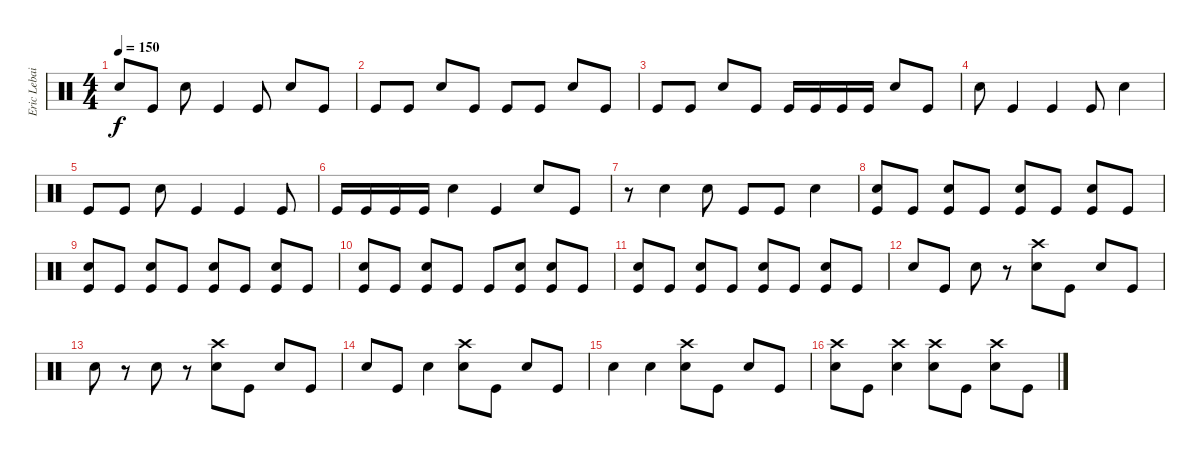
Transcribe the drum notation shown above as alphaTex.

\track ("Eric Lebailly - Drums" "Eric Lebai") {instrument percussion}
\staff {score}
\articulation defaults
\ts (4 4)
\tempo 150
\clef neutral
\ks c "Snare (hit)"{t}.8{dy f} "Kick (hit)".8 "Snare (hit) 2".8 "Kick (hit)".4 "Kick (hit)".8 "Snare (hit) 2".8 "Kick (hit)".8
|
"Kick (hit)".8 "Kick (hit)".8 "Snare (hit) 2".8 "Kick (hit)".8 "Kick (hit)".8 "Kick (hit)".8 "Snare (hit) 2".8 "Kick (hit)".8 |
"Kick (hit)".8 "Kick (hit)".8 "Snare (hit) 2".8 "Kick (hit)".8 "Kick (hit)".16 "Kick (hit)".16 "Kick (hit)".16 "Kick (hit)".16 "Snare (hit) 2".8 "Kick (hit)".8 |
"Snare (hit) 2".8 "Kick (hit)".4 "Kick (hit)".4 "Kick (hit)".8 "Snare (hit) 2".4 |
"Kick (hit)".8 "Kick (hit)".8 "Snare (hit) 2".8 "Kick (hit)".4 "Kick (hit)".4 "Kick (hit)".8 |
"Kick (hit)".16 "Kick (hit)".16 "Kick (hit)".16 "Kick (hit)".16 "Snare (hit) 2".4 "Kick (hit)".4 "Snare (hit) 2".8 "Kick (hit)".8 |
r.8 "Snare (hit) 2".4 "Snare (hit) 2".8 "Kick (hit)".8 "Kick (hit)".8 "Snare (hit) 2".4 |
("Snare (hit) 2" "Kick (hit)").8 "Kick (hit)".8 ("Snare (hit) 2" "Kick (hit)").8 "Kick (hit)".8 ("Snare (hit) 2" "Kick (hit)").8 "Kick (hit)".8 ("Snare (hit) 2" "Kick (hit)").8 "Kick (hit)".8 |
("Snare (hit) 2" "Kick (hit)").8 "Kick (hit)".8 ("Snare (hit) 2" "Kick (hit)").8 "Kick (hit)".8 ("Snare (hit) 2" "Kick (hit)").8 "Kick (hit)".8 ("Snare (hit) 2" "Kick (hit)").8 "Kick (hit)".8 |
("Snare (hit) 2" "Kick (hit)").8 "Kick (hit)".8 ("Snare (hit) 2" "Kick (hit)").8 "Kick (hit)".8 "Kick (hit)".8 ("Snare (hit) 2" "Kick (hit)").8 ("Snare (hit) 2" "Kick (hit)").8 "Kick (hit)".8 |
("Snare (hit) 2" "Kick (hit)").8 "Kick (hit)".8 ("Snare (hit) 2" "Kick (hit)").8 "Kick (hit)".8 ("Snare (hit) 2" "Kick (hit)").8 "Kick (hit)".8 ("Snare (hit) 2" "Kick (hit)").8 "Kick (hit)".8 |
"Snare (hit) 2".8 "Kick (hit)".8 "Snare (hit) 2".8 r.8 ("Crash high (hit)" "Snare (hit) 2").8 "Kick (hit)".8 "Snare (hit) 2".8 "Kick (hit)".8 |
"Snare (hit) 2".8 r.8 "Snare (hit) 2".8 r.8 ("Crash high (hit)" "Snare (hit) 2").8 "Kick (hit)".8 "Snare (hit) 2".8 "Kick (hit)".8 |
"Snare (hit) 2".8 "Kick (hit)".8 "Snare (hit) 2".4 ("Crash high (hit)" "Snare (hit) 2").8 "Kick (hit)".8 "Snare (hit) 2".8 "Kick (hit)".8 |
"Snare (hit) 2".4 "Snare (hit) 2".4 ("Crash high (hit)" "Snare (hit) 2").8 "Kick (hit)".8 "Snare (hit) 2".8 "Kick (hit)".8 |
("Crash high (hit)" "Snare (hit) 2").8 "Kick (hit)".8 ("Crash high (hit)" "Snare (hit) 2").4 ("Crash high (hit)" "Snare (hit) 2").8 "Kick (hit)".8 ("Crash high (hit)" "Snare (hit) 2").8 "Kick (hit)".8
